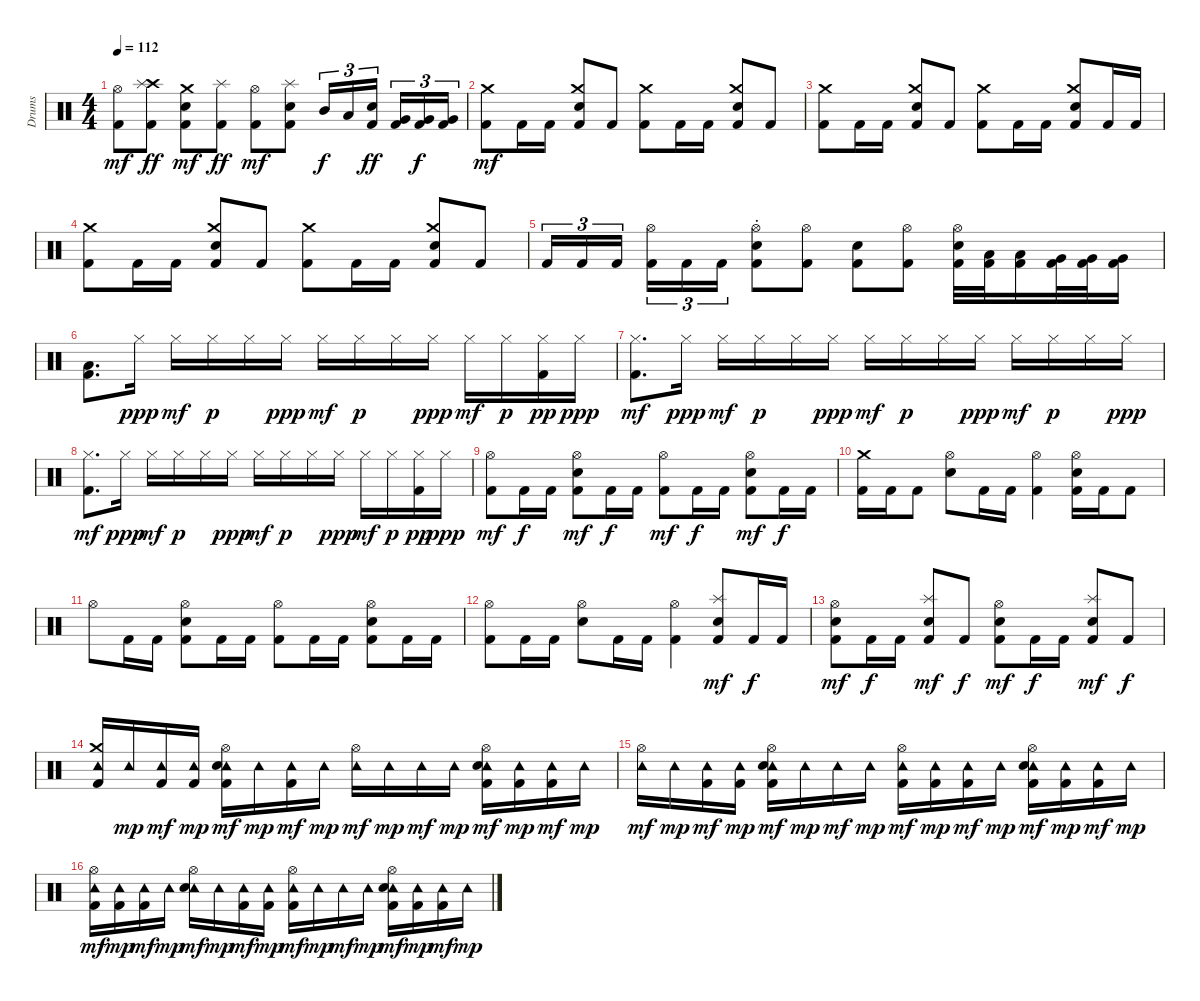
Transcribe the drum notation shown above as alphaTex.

\track ("Drums" "Drums") {instrument percussion}
\staff {score}
\articulation defaults
\ts (4 4)
\tempo 112
\clef neutral
\ks c
("Hi-Hat (open)" "Kick (hit) 2").8{dy mf} ("Crash high (hit)" "Splash (hit)" "Kick (hit) 2").8{dy ff} ("Crash medium (hit)" "Electric Snare (hit)" "Kick (hit) 2").8{dy mf} ("Splash (hit)" "Kick (hit) 2").8{dy ff} ("Hi-Hat (open)" "Kick (hit) 2").8{dy mf} ("Splash (hit)" "Electric Snare (hit)" "Kick (hit) 2").8 "Mid Tom (hit)".16{tu (3 2) dy f} "Low Tom (hit)".16{tu (3 2)} ("Electric Snare (hit)" "Kick (hit) 2").16{tu (3 2) dy ff beam splitsecondary} ("Very Low Tom (hit)" "Kick (hit) 2").16{tu (3 2)} ("Very Low Tom (hit)" "Kick (hit) 2").16{tu (3 2) dy f} ("Very Low Tom (hit)" "Kick (hit) 2").16{tu (3 2)} |
("Crash medium (hit)" "Kick (hit) 2").8{dy mf} "Kick (hit) 2".16 "Kick (hit) 2".16 ("Crash medium (hit)" "Electric Snare (hit)" "Kick (hit) 2").8 "Kick (hit) 2".8 ("Crash medium (hit)" "Kick (hit) 2").8 "Kick (hit) 2".16 "Kick (hit) 2".16 ("Crash medium (hit)" "Electric Snare (hit)" "Kick (hit) 2").8 "Kick (hit) 2".8 |
("Crash medium (hit)" "Kick (hit) 2").8 "Kick (hit) 2".16 "Kick (hit) 2".16 ("Crash medium (hit)" "Electric Snare (hit)" "Kick (hit) 2").8 "Kick (hit) 2".8 ("Crash medium (hit)" "Kick (hit) 2").8 "Kick (hit) 2".16 "Kick (hit) 2".16 ("Crash medium (hit)" "Electric Snare (hit)" "Kick (hit) 2").8 "Kick (hit) 2".16 "Kick (hit) 2".16 |
("Crash medium (hit)" "Kick (hit) 2").8 "Kick (hit) 2".16 "Kick (hit) 2".16 ("Crash medium (hit)" "Electric Snare (hit)" "Kick (hit) 2").8 "Kick (hit) 2".8 ("Crash medium (hit)" "Kick (hit) 2").8 "Kick (hit) 2".16 "Kick (hit) 2".16 ("Crash medium (hit)" "Electric Snare (hit)" "Kick (hit) 2").8 "Kick (hit) 2".8 |
"Kick (hit) 2".16{tu (3 2)} "Kick (hit) 2".16{tu (3 2)} "Kick (hit) 2".16{tu (3 2) beam splitsecondary} ("Hi-Hat (open)" "Kick (hit) 2").16{tu (3 2)} "Kick (hit) 2".16{tu (3 2)} "Kick (hit) 2".16{tu (3 2)} ("Hi-Hat (open)"{st} "Electric Snare (hit)" "Kick (hit) 2").8 ("Hi-Hat (open)" "Kick (hit) 2").8 ("Electric Snare (hit)" "Kick (hit) 2").8 ("Hi-Hat (open)" "Kick (hit) 2").8 ("Hi-Hat (open)" "Electric Snare (hit)" "Kick (hit) 2").32 ("Low Tom (hit)" "Kick (hit) 2").32 ("Low Tom (hit)" "Kick (hit) 2").16 ("Very Low Tom (hit)" "Kick (hit) 2").32 ("Very Low Tom (hit)" "Kick (hit) 2").32 ("Very Low Tom (hit)" "Kick (hit) 2").16 |
("Low Tom (hit)" "Kick (hit) 2").8{d} "Hi-Hat (closed)".16{dy ppp} "Hi-Hat (closed)".16{dy mf} "Hi-Hat (closed)".16{dy p} "Hi-Hat (closed)".16 "Hi-Hat (closed)".16{dy ppp} "Hi-Hat (closed)".16{dy mf} "Hi-Hat (closed)".16{dy p} "Hi-Hat (closed)".16 "Hi-Hat (closed)".16{dy ppp} "Hi-Hat (closed)".16{dy mf} "Hi-Hat (closed)".16{dy p} ("Hi-Hat (closed)" "Kick (hit) 2").16{dy pp} "Hi-Hat (closed)".16{dy ppp} |
("Hi-Hat (closed)" "Kick (hit) 2").8{d dy mf} "Hi-Hat (closed)".16{dy ppp} "Hi-Hat (closed)".16{dy mf} "Hi-Hat (closed)".16{dy p} "Hi-Hat (closed)".16 "Hi-Hat (closed)".16{dy ppp} "Hi-Hat (closed)".16{dy mf} "Hi-Hat (closed)".16{dy p} "Hi-Hat (closed)".16 "Hi-Hat (closed)".16{dy ppp} "Hi-Hat (closed)".16{dy mf} "Hi-Hat (closed)".16{dy p} "Hi-Hat (closed)".16 "Hi-Hat (closed)".16{dy ppp} |
("Hi-Hat (closed)" "Kick (hit) 2").8{d dy mf} "Hi-Hat (closed)".16{dy ppp} "Hi-Hat (closed)".16{dy mf} "Hi-Hat (closed)".16{dy p} "Hi-Hat (closed)".16 "Hi-Hat (closed)".16{dy ppp} "Hi-Hat (closed)".16{dy mf} "Hi-Hat (closed)".16{dy p} "Hi-Hat (closed)".16 "Hi-Hat (closed)".16{dy ppp} "Hi-Hat (closed)".16{dy mf} "Hi-Hat (closed)".16{dy p} ("Hi-Hat (closed)" "Kick (hit) 2").16{dy pp} "Hi-Hat (closed)".16{dy ppp} |
("Hi-Hat (open)" "Kick (hit) 2").8{dy mf} "Kick (hit) 2".16{dy f} "Kick (hit) 2".16 ("Hi-Hat (open)" "Electric Snare (hit)" "Kick (hit) 2").8{dy mf} "Kick (hit) 2".16{dy f} "Kick (hit) 2".16 ("Hi-Hat (open)" "Kick (hit) 2").8{dy mf} "Kick (hit) 2".16{dy f} "Kick (hit) 2".16 ("Hi-Hat (open)" "Electric Snare (hit)" "Kick (hit) 2").8{dy mf} "Kick (hit) 2".16{dy f} "Kick (hit) 2".16 |
("Crash medium (hit)" "Kick (hit) 2").16 "Kick (hit) 2".16 "Kick (hit) 2".8 ("Hi-Hat (open)" "Electric Snare (hit)").8 "Kick (hit) 2".16 "Kick (hit) 2".16 ("Hi-Hat (open)" "Kick (hit) 2").4 ("Hi-Hat (open)" "Electric Snare (hit)" "Kick (hit) 2").16 "Kick (hit) 2".16 "Kick (hit) 2".8 |
"Hi-Hat (open)".8 "Kick (hit) 2".16 "Kick (hit) 2".16 ("Hi-Hat (open)" "Electric Snare (hit)" "Kick (hit) 2").8 "Kick (hit) 2".16 "Kick (hit) 2".16 ("Hi-Hat (open)" "Kick (hit) 2").8 "Kick (hit) 2".16 "Kick (hit) 2".16 ("Hi-Hat (open)" "Electric Snare (hit)" "Kick (hit) 2").8 "Kick (hit) 2".16 "Kick (hit) 2".16 |
("Hi-Hat (open)" "Kick (hit) 2").8 "Kick (hit) 2".16 "Kick (hit) 2".16 ("Hi-Hat (open)" "Electric Snare (hit)").8 "Kick (hit) 2".16 "Kick (hit) 2".16 ("Hi-Hat (open)" "Kick (hit) 2").4 ("Splash (hit)" "Electric Snare (hit)" "Kick (hit) 2").8{dy mf} "Kick (hit) 2".16{dy f} "Kick (hit) 2".16 |
("Hi-Hat (open)" "Electric Snare (hit)" "Kick (hit) 2").8{dy mf} "Kick (hit) 2".16{dy f} "Kick (hit) 2".16 ("Splash (hit)" "Electric Snare (hit)" "Kick (hit) 2").8{dy mf} "Kick (hit) 2".8{dy f} ("Hi-Hat (open)" "Electric Snare (hit)" "Kick (hit) 2").8{dy mf} "Kick (hit) 2".16{dy f} "Kick (hit) 2".16 ("Splash (hit)" "Electric Snare (hit)" "Kick (hit) 2").8{dy mf} "Kick (hit) 2".8{dy f} |
("Crash medium (hit)" "Tambourine (hit)" "Kick (hit) 2").16 "Tambourine (hit)".16{dy mp} ("Tambourine (hit)" "Kick (hit) 2").16{dy mf} ("Tambourine (hit)" "Kick (hit) 2").16{dy mp} ("Tambourine (hit)" "Hi-Hat (open)" "Electric Snare (hit)" "Kick (hit) 2").16{dy mf} "Tambourine (hit)".16{dy mp} ("Tambourine (hit)" "Kick (hit) 2").16{dy mf} "Tambourine (hit)".16{dy mp} ("Tambourine (hit)" "Hi-Hat (open)").16{dy mf} "Tambourine (hit)".16{dy mp} "Tambourine (hit)".16{dy mf} "Tambourine (hit)".16{dy mp} ("Tambourine (hit)" "Hi-Hat (open)" "Electric Snare (hit)" "Kick (hit) 2").16{dy mf} ("Tambourine (hit)" "Kick (hit) 2").16{dy mp} ("Tambourine (hit)" "Kick (hit) 2").16{dy mf} "Tambourine (hit)".16{dy mp} |
("Tambourine (hit)" "Hi-Hat (open)").16{dy mf} "Tambourine (hit)".16{dy mp} ("Tambourine (hit)" "Kick (hit) 2").16{dy mf} ("Tambourine (hit)" "Kick (hit) 2").16{dy mp} ("Tambourine (hit)" "Hi-Hat (open)" "Electric Snare (hit)" "Kick (hit) 2").16{dy mf} "Tambourine (hit)".16{dy mp} "Tambourine (hit)".16{dy mf} "Tambourine (hit)".16{dy mp} ("Tambourine (hit)" "Hi-Hat (open)" "Kick (hit) 2").16{dy mf} ("Tambourine (hit)" "Kick (hit) 2").16{dy mp} ("Tambourine (hit)" "Kick (hit) 2").16{dy mf} "Tambourine (hit)".16{dy mp} ("Tambourine (hit)" "Hi-Hat (open)" "Electric Snare (hit)" "Kick (hit) 2").16{dy mf} ("Tambourine (hit)" "Kick (hit) 2").16{dy mp} ("Tambourine (hit)" "Kick (hit) 2").16{dy mf} "Tambourine (hit)".16{dy mp} |
("Tambourine (hit)" "Hi-Hat (open)" "Kick (hit) 2").16{dy mf} ("Tambourine (hit)" "Kick (hit) 2").16{dy mp} ("Tambourine (hit)" "Kick (hit) 2").16{dy mf} "Tambourine (hit)".16{dy mp} ("Tambourine (hit)" "Hi-Hat (open)" "Electric Snare (hit)").16{dy mf} "Tambourine (hit)".16{dy mp} ("Tambourine (hit)" "Kick (hit) 2").16{dy mf} ("Tambourine (hit)" "Kick (hit) 2").16{dy mp} ("Tambourine (hit)" "Hi-Hat (open)" "Kick (hit) 2").16{dy mf} "Tambourine (hit)".16{dy mp} "Tambourine (hit)".16{dy mf} "Tambourine (hit)".16{dy mp} ("Tambourine (hit)" "Hi-Hat (open)" "Electric Snare (hit)" "Kick (hit) 2").16{dy mf} ("Tambourine (hit)" "Kick (hit) 2").16{dy mp} ("Tambourine (hit)" "Kick (hit) 2").16{dy mf} "Tambourine (hit)".16{dy mp}
